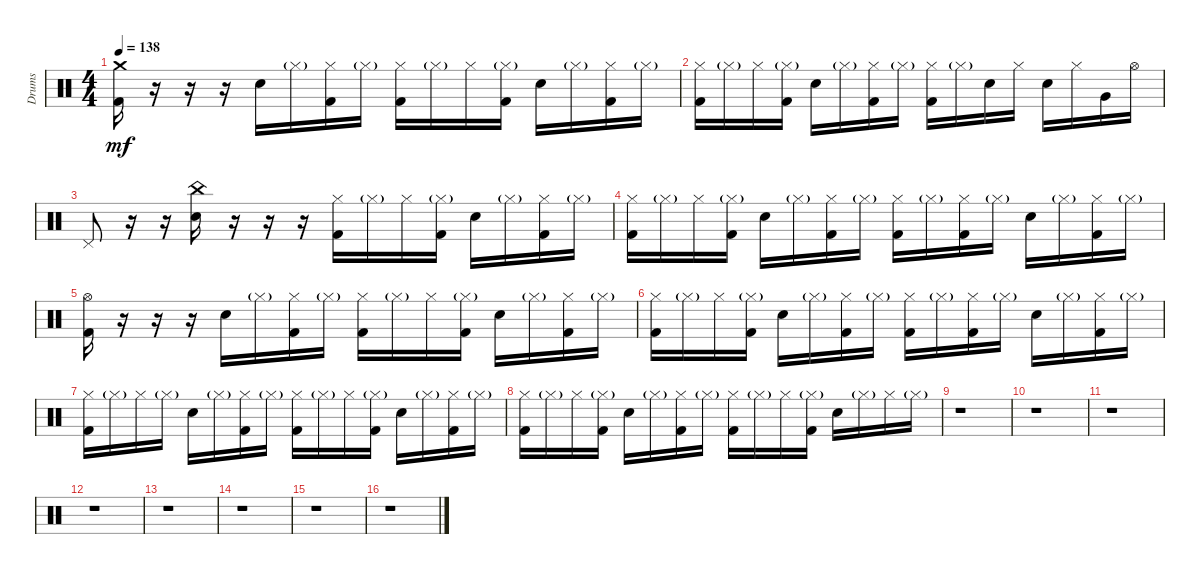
\track ("Drums" "Drums") {instrument percussion}
\staff {score}
\articulation defaults
\ts (4 4)
\tempo 138
\clef neutral
\ks c
("Crash medium (hit)" "Kick (hit) 2").16{dy mf} r.16 r.16 r.16 "Snare (hit) 2".16 "Hi-Hat (closed)"{g}.16 ("Hi-Hat (closed)" "Kick (hit) 2").16 "Hi-Hat (closed)"{g}.16 ("Hi-Hat (closed)" "Kick (hit) 2").16 "Hi-Hat (closed)"{g}.16 "Hi-Hat (closed)".16 ("Hi-Hat (closed)"{g} "Kick (hit) 2").16 "Snare (hit) 2".16 "Hi-Hat (closed)"{g}.16 ("Hi-Hat (closed)" "Kick (hit) 2").16 "Hi-Hat (closed)"{g}.16 |
("Hi-Hat (closed)" "Kick (hit) 2").16 "Hi-Hat (closed)"{g}.16 "Hi-Hat (closed)".16 ("Hi-Hat (closed)"{g} "Kick (hit) 2").16 "Snare (hit) 2".16 "Hi-Hat (closed)"{g}.16 ("Hi-Hat (closed)" "Kick (hit) 2").16 "Hi-Hat (closed)"{g}.16 ("Hi-Hat (closed)" "Kick (hit) 2").16 "Hi-Hat (closed)"{g}.16 "Snare (hit) 2".16 "Hi-Hat (closed)".16 "Snare (hit) 2".16 "Hi-Hat (closed)".16 "Very Low Tom (hit)".16 "Hi-Hat (open)".16 |
"Pedal Hi-Hat (hit)".8 r.16 r.16 ("China (hit)" "Snare (hit) 2").16 r.16 r.16 r.16 ("Hi-Hat (closed)" "Kick (hit) 2").16 "Hi-Hat (closed)"{g}.16 "Hi-Hat (closed)".16 ("Hi-Hat (closed)"{g} "Kick (hit) 2").16 "Snare (hit) 2".16 "Hi-Hat (closed)"{g}.16 ("Hi-Hat (closed)" "Kick (hit) 2").16 "Hi-Hat (closed)"{g}.16 |
("Hi-Hat (closed)" "Kick (hit) 2").16 "Hi-Hat (closed)"{g}.16 "Hi-Hat (closed)".16 ("Hi-Hat (closed)"{g} "Kick (hit) 2").16 "Snare (hit) 2".16 "Hi-Hat (closed)"{g}.16 ("Hi-Hat (closed)" "Kick (hit) 2").16 "Hi-Hat (closed)"{g}.16 ("Hi-Hat (closed)" "Kick (hit) 2").16 "Hi-Hat (closed)"{g}.16 ("Hi-Hat (closed)" "Kick (hit) 2").16 "Hi-Hat (closed)"{g}.16 "Snare (hit) 2".16 "Hi-Hat (closed)"{g}.16 ("Hi-Hat (closed)" "Kick (hit) 2").16 "Hi-Hat (closed)"{g}.16 |
("Hi-Hat (open)" "Kick (hit) 2").16 r.16 r.16 r.16 "Snare (hit) 2".16 "Hi-Hat (closed)"{g}.16 ("Hi-Hat (closed)" "Kick (hit) 2").16 "Hi-Hat (closed)"{g}.16 ("Hi-Hat (closed)" "Kick (hit) 2").16 "Hi-Hat (closed)"{g}.16 "Hi-Hat (closed)".16 ("Hi-Hat (closed)"{g} "Kick (hit) 2").16 "Snare (hit) 2".16 "Hi-Hat (closed)"{g}.16 ("Hi-Hat (closed)" "Kick (hit) 2").16 "Hi-Hat (closed)"{g}.16 |
("Hi-Hat (closed)" "Kick (hit) 2").16 "Hi-Hat (closed)"{g}.16 "Hi-Hat (closed)".16 ("Hi-Hat (closed)"{g} "Kick (hit) 2").16 "Snare (hit) 2".16 "Hi-Hat (closed)"{g}.16 ("Hi-Hat (closed)" "Kick (hit) 2").16 "Hi-Hat (closed)"{g}.16 ("Hi-Hat (closed)" "Kick (hit) 2").16 "Hi-Hat (closed)"{g}.16 ("Hi-Hat (closed)" "Kick (hit) 2").16 "Hi-Hat (closed)"{g}.16 "Snare (hit) 2".16 "Hi-Hat (closed)"{g}.16 ("Hi-Hat (closed)" "Kick (hit) 2").16 "Hi-Hat (closed)"{g}.16 |
("Hi-Hat (closed)" "Kick (hit) 2").16 "Hi-Hat (closed)"{g}.16 "Hi-Hat (closed)".16 "Hi-Hat (closed)"{g}.16 "Snare (hit) 2".16 "Hi-Hat (closed)"{g}.16 ("Hi-Hat (closed)" "Kick (hit) 2").16 "Hi-Hat (closed)"{g}.16 ("Hi-Hat (closed)" "Kick (hit) 2").16 "Hi-Hat (closed)"{g}.16 "Hi-Hat (closed)".16 ("Hi-Hat (closed)"{g} "Kick (hit) 2").16 "Snare (hit) 2".16 "Hi-Hat (closed)"{g}.16 ("Hi-Hat (closed)" "Kick (hit) 2").16 "Hi-Hat (closed)"{g}.16 |
("Hi-Hat (closed)" "Kick (hit) 2").16 "Hi-Hat (closed)"{g}.16 "Hi-Hat (closed)".16 ("Hi-Hat (closed)"{g} "Kick (hit) 2").16 "Snare (hit) 2".16 "Hi-Hat (closed)"{g}.16 ("Hi-Hat (closed)" "Kick (hit) 2").16 "Hi-Hat (closed)"{g}.16 ("Hi-Hat (closed)" "Kick (hit) 2").16 "Hi-Hat (closed)"{g}.16 "Hi-Hat (closed)".16 ("Hi-Hat (closed)"{g} "Kick (hit) 2").16 "Snare (hit) 2".16 "Hi-Hat (closed)"{g}.16 "Hi-Hat (closed)".16 "Hi-Hat (closed)"{g}.16 |
r.1 |
r.1 |
r.1 |
r.1 |
r.1 |
r.1 |
r.1 |
r.1
